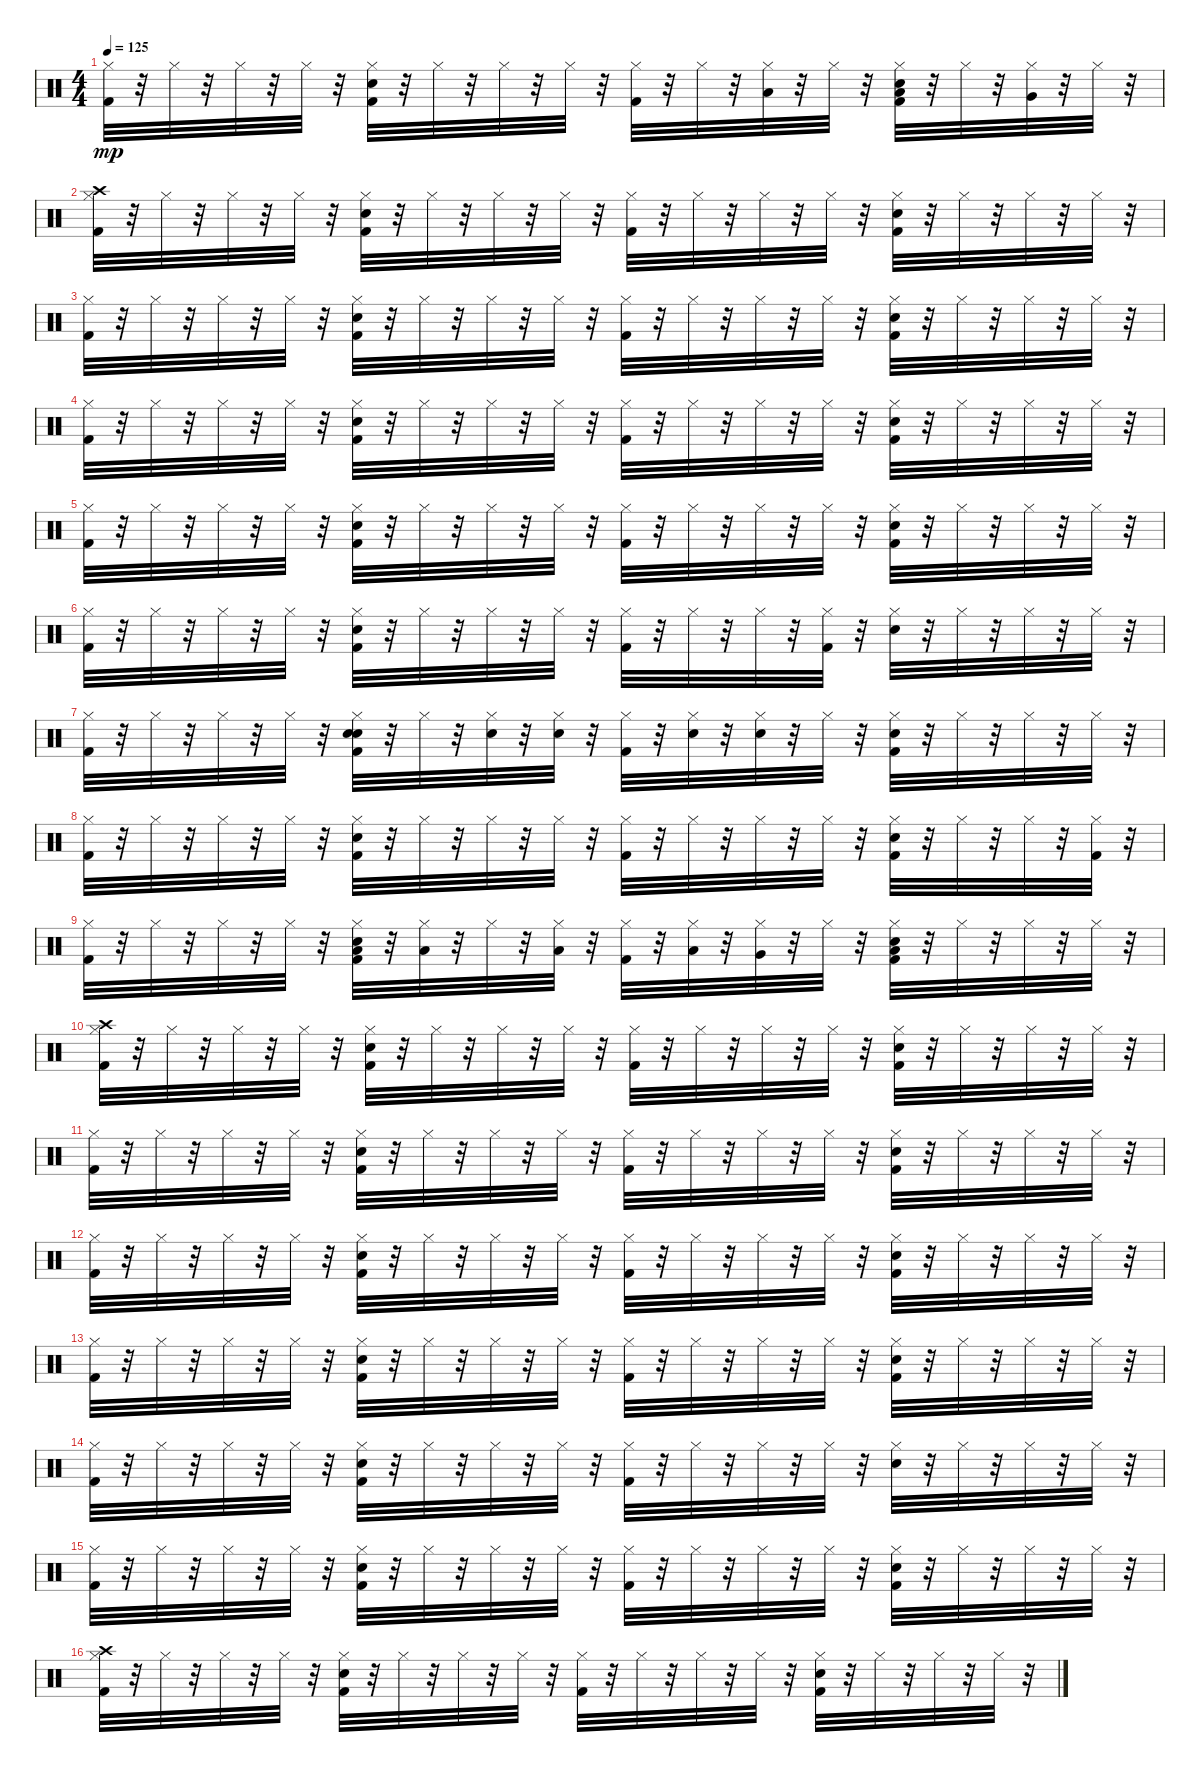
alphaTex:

\track "" {instrument percussion}
\staff {score}
\articulation defaults
\ts (4 4)
\tempo 125
\clef neutral
\ks c
("Kick (hit) 2" "Hi-Hat (closed)").32{dy mp} r.32 "Hi-Hat (closed)".32 r.32 "Hi-Hat (closed)".32 r.32 "Hi-Hat (closed)".32 r.32 ("Kick (hit) 2" "Snare (hit) 2" "Hi-Hat (closed)").32 r.32 "Hi-Hat (closed)".32 r.32 "Hi-Hat (closed)".32 r.32 "Hi-Hat (closed)".32 r.32 ("Kick (hit) 2" "Hi-Hat (closed)").32 r.32 "Hi-Hat (closed)".32 r.32 ("Low Tom (hit)" "Hi-Hat (closed)").32 r.32 "Hi-Hat (closed)".32 r.32 ("Low Tom (hit)" "Kick (hit) 2" "Snare (hit) 2" "Hi-Hat (closed)").32 r.32 "Hi-Hat (closed)".32 r.32 ("Very Low Tom (hit)" "Hi-Hat (closed)").32 r.32 "Hi-Hat (closed)".32 r.32 |
("Hi-Hat (closed)" "Kick (hit) 2" "Crash high (hit)").32 r.32 "Hi-Hat (closed)".32 r.32 "Hi-Hat (closed)".32 r.32 "Hi-Hat (closed)".32 r.32 ("Kick (hit) 2" "Hi-Hat (closed)" "Snare (hit) 2").32 r.32 "Hi-Hat (closed)".32 r.32 "Hi-Hat (closed)".32 r.32 "Hi-Hat (closed)".32 r.32 ("Hi-Hat (closed)" "Kick (hit) 2").32 r.32 "Hi-Hat (closed)".32 r.32 "Hi-Hat (closed)".32 r.32 "Hi-Hat (closed)".32 r.32 ("Kick (hit) 2" "Hi-Hat (closed)" "Snare (hit) 2").32 r.32 "Hi-Hat (closed)".32 r.32 "Hi-Hat (closed)".32 r.32 "Hi-Hat (closed)".32 r.32 |
("Kick (hit) 2" "Hi-Hat (closed)").32 r.32 "Hi-Hat (closed)".32 r.32 "Hi-Hat (closed)".32 r.32 "Hi-Hat (closed)".32 r.32 ("Kick (hit) 2" "Snare (hit) 2" "Hi-Hat (closed)").32 r.32 "Hi-Hat (closed)".32 r.32 "Hi-Hat (closed)".32 r.32 "Hi-Hat (closed)".32 r.32 ("Kick (hit) 2" "Hi-Hat (closed)").32 r.32 "Hi-Hat (closed)".32 r.32 "Hi-Hat (closed)".32 r.32 "Hi-Hat (closed)".32 r.32 ("Kick (hit) 2" "Snare (hit) 2" "Hi-Hat (closed)").32 r.32 "Hi-Hat (closed)".32 r.32 "Hi-Hat (closed)".32 r.32 "Hi-Hat (closed)".32 r.32 |
("Kick (hit) 2" "Hi-Hat (closed)").32 r.32 "Hi-Hat (closed)".32 r.32 "Hi-Hat (closed)".32 r.32 "Hi-Hat (closed)".32 r.32 ("Kick (hit) 2" "Snare (hit) 2" "Hi-Hat (closed)").32 r.32 "Hi-Hat (closed)".32 r.32 "Hi-Hat (closed)".32 r.32 "Hi-Hat (closed)".32 r.32 ("Kick (hit) 2" "Hi-Hat (closed)").32 r.32 "Hi-Hat (closed)".32 r.32 "Hi-Hat (closed)".32 r.32 "Hi-Hat (closed)".32 r.32 ("Kick (hit) 2" "Snare (hit) 2" "Hi-Hat (closed)").32 r.32 "Hi-Hat (closed)".32 r.32 "Hi-Hat (closed)".32 r.32 "Hi-Hat (closed)".32 r.32 |
("Kick (hit) 2" "Hi-Hat (closed)").32 r.32 "Hi-Hat (closed)".32 r.32 "Hi-Hat (closed)".32 r.32 "Hi-Hat (closed)".32 r.32 ("Kick (hit) 2" "Snare (hit) 2" "Hi-Hat (closed)").32 r.32 "Hi-Hat (closed)".32 r.32 "Hi-Hat (closed)".32 r.32 "Hi-Hat (closed)".32 r.32 ("Kick (hit) 2" "Hi-Hat (closed)").32 r.32 "Hi-Hat (closed)".32 r.32 "Hi-Hat (closed)".32 r.32 "Hi-Hat (closed)".32 r.32 ("Kick (hit) 2" "Snare (hit) 2" "Hi-Hat (closed)").32 r.32 "Hi-Hat (closed)".32 r.32 "Hi-Hat (closed)".32 r.32 "Hi-Hat (closed)".32 r.32 |
("Kick (hit) 2" "Hi-Hat (closed)").32 r.32 "Hi-Hat (closed)".32 r.32 "Hi-Hat (closed)".32 r.32 "Hi-Hat (closed)".32 r.32 ("Kick (hit) 2" "Snare (hit) 2" "Hi-Hat (closed)").32 r.32 "Hi-Hat (closed)".32 r.32 "Hi-Hat (closed)".32 r.32 "Hi-Hat (closed)".32 r.32 ("Kick (hit) 2" "Hi-Hat (closed)").32 r.32 "Hi-Hat (closed)".32 r.32 "Hi-Hat (closed)".32 r.32 ("Kick (hit) 2" "Hi-Hat (closed)").32 r.32 ("Snare (hit) 2" "Hi-Hat (closed)").32 r.32 "Hi-Hat (closed)".32 r.32 "Hi-Hat (closed)".32 r.32 "Hi-Hat (closed)".32 r.32 |
("Kick (hit) 2" "Hi-Hat (closed)").32 r.32 "Hi-Hat (closed)".32 r.32 "Hi-Hat (closed)".32 r.32 "Hi-Hat (closed)".32 r.32 ("Hand Clap (hit)" "Kick (hit) 2" "Snare (hit) 2" "Hi-Hat (closed)").32 r.32 "Hi-Hat (closed)".32 r.32 ("Hand Clap (hit)" "Hi-Hat (closed)").32 r.32 ("Hand Clap (hit)" "Hi-Hat (closed)").32 r.32 ("Kick (hit) 2" "Hi-Hat (closed)").32 r.32 ("Hand Clap (hit)" "Hi-Hat (closed)").32 r.32 ("Hand Clap (hit)" "Hi-Hat (closed)").32 r.32 "Hi-Hat (closed)".32 r.32 ("Kick (hit) 2" "Snare (hit) 2" "Hi-Hat (closed)").32 r.32 "Hi-Hat (closed)".32 r.32 "Hi-Hat (closed)".32 r.32 "Hi-Hat (closed)".32 r.32 |
("Kick (hit) 2" "Hi-Hat (closed)").32 r.32 "Hi-Hat (closed)".32 r.32 "Hi-Hat (closed)".32 r.32 "Hi-Hat (closed)".32 r.32 ("Kick (hit) 2" "Snare (hit) 2" "Hi-Hat (closed)").32 r.32 "Hi-Hat (closed)".32 r.32 "Hi-Hat (closed)".32 r.32 "Hi-Hat (closed)".32 r.32 ("Kick (hit) 2" "Hi-Hat (closed)").32 r.32 "Hi-Hat (closed)".32 r.32 "Hi-Hat (closed)".32 r.32 "Hi-Hat (closed)".32 r.32 ("Kick (hit) 2" "Snare (hit) 2" "Hi-Hat (closed)").32 r.32 "Hi-Hat (closed)".32 r.32 "Hi-Hat (closed)".32 r.32 ("Kick (hit) 2" "Hi-Hat (closed)").32 r.32 |
("Kick (hit) 2" "Hi-Hat (closed)").32 r.32 "Hi-Hat (closed)".32 r.32 "Hi-Hat (closed)".32 r.32 "Hi-Hat (closed)".32 r.32 ("Kick (hit) 2" "Snare (hit) 2" "Hi-Hat (closed)" "Low Tom (hit)").32 r.32 ("Hi-Hat (closed)" "Low Tom (hit)").32 r.32 "Hi-Hat (closed)".32 r.32 ("Low Tom (hit)" "Hi-Hat (closed)").32 r.32 ("Kick (hit) 2" "Hi-Hat (closed)").32 r.32 ("Low Tom (hit)" "Hi-Hat (closed)").32 r.32 ("Very Low Tom (hit)" "Hi-Hat (closed)").32 r.32 "Hi-Hat (closed)".32 r.32 ("Kick (hit) 2" "Low Floor Tom (hit)" "Snare (hit) 2" "Hi-Hat (closed)").32 r.32 "Hi-Hat (closed)".32 r.32 "Hi-Hat (closed)".32 r.32 "Hi-Hat (closed)".32 r.32 |
("Hi-Hat (closed)" "Kick (hit) 2" "Crash high (hit)").32 r.32 "Hi-Hat (closed)".32 r.32 "Hi-Hat (closed)".32 r.32 "Hi-Hat (closed)".32 r.32 ("Kick (hit) 2" "Hi-Hat (closed)" "Snare (hit) 2").32 r.32 "Hi-Hat (closed)".32 r.32 "Hi-Hat (closed)".32 r.32 "Hi-Hat (closed)".32 r.32 ("Hi-Hat (closed)" "Kick (hit) 2").32 r.32 "Hi-Hat (closed)".32 r.32 "Hi-Hat (closed)".32 r.32 "Hi-Hat (closed)".32 r.32 ("Kick (hit) 2" "Hi-Hat (closed)" "Snare (hit) 2").32 r.32 "Hi-Hat (closed)".32 r.32 "Hi-Hat (closed)".32 r.32 "Hi-Hat (closed)".32 r.32 |
("Kick (hit) 2" "Hi-Hat (closed)").32 r.32 "Hi-Hat (closed)".32 r.32 "Hi-Hat (closed)".32 r.32 "Hi-Hat (closed)".32 r.32 ("Kick (hit) 2" "Snare (hit) 2" "Hi-Hat (closed)").32 r.32 "Hi-Hat (closed)".32 r.32 "Hi-Hat (closed)".32 r.32 "Hi-Hat (closed)".32 r.32 ("Kick (hit) 2" "Hi-Hat (closed)").32 r.32 "Hi-Hat (closed)".32 r.32 "Hi-Hat (closed)".32 r.32 "Hi-Hat (closed)".32 r.32 ("Kick (hit) 2" "Snare (hit) 2" "Hi-Hat (closed)").32 r.32 "Hi-Hat (closed)".32 r.32 "Hi-Hat (closed)".32 r.32 "Hi-Hat (closed)".32 r.32 |
("Kick (hit) 2" "Hi-Hat (closed)").32 r.32 "Hi-Hat (closed)".32 r.32 "Hi-Hat (closed)".32 r.32 "Hi-Hat (closed)".32 r.32 ("Kick (hit) 2" "Snare (hit) 2" "Hi-Hat (closed)").32 r.32 "Hi-Hat (closed)".32 r.32 "Hi-Hat (closed)".32 r.32 "Hi-Hat (closed)".32 r.32 ("Kick (hit) 2" "Hi-Hat (closed)").32 r.32 "Hi-Hat (closed)".32 r.32 "Hi-Hat (closed)".32 r.32 "Hi-Hat (closed)".32 r.32 ("Kick (hit) 2" "Snare (hit) 2" "Hi-Hat (closed)").32 r.32 "Hi-Hat (closed)".32 r.32 "Hi-Hat (closed)".32 r.32 "Hi-Hat (closed)".32 r.32 |
("Kick (hit) 2" "Hi-Hat (closed)").32 r.32 "Hi-Hat (closed)".32 r.32 "Hi-Hat (closed)".32 r.32 "Hi-Hat (closed)".32 r.32 ("Kick (hit) 2" "Snare (hit) 2" "Hi-Hat (closed)").32 r.32 "Hi-Hat (closed)".32 r.32 "Hi-Hat (closed)".32 r.32 "Hi-Hat (closed)".32 r.32 ("Kick (hit) 2" "Hi-Hat (closed)").32 r.32 "Hi-Hat (closed)".32 r.32 "Hi-Hat (closed)".32 r.32 "Hi-Hat (closed)".32 r.32 ("Kick (hit) 2" "Snare (hit) 2" "Hi-Hat (closed)").32 r.32 "Hi-Hat (closed)".32 r.32 "Hi-Hat (closed)".32 r.32 "Hi-Hat (closed)".32 r.32 |
("Kick (hit) 2" "Hi-Hat (closed)").32 r.32 "Hi-Hat (closed)".32 r.32 "Hi-Hat (closed)".32 r.32 "Hi-Hat (closed)".32 r.32 ("Kick (hit) 2" "Snare (hit) 2" "Hi-Hat (closed)").32 r.32 "Hi-Hat (closed)".32 r.32 "Hi-Hat (closed)".32 r.32 "Hi-Hat (closed)".32 r.32 ("Kick (hit) 2" "Hi-Hat (closed)").32 r.32 "Hi-Hat (closed)".32 r.32 "Hi-Hat (closed)".32 r.32 "Hi-Hat (closed)".32 r.32 ("Snare (hit) 2" "Hi-Hat (closed)").32 r.32 "Hi-Hat (closed)".32 r.32 "Hi-Hat (closed)".32 r.32 "Hi-Hat (closed)".32 r.32 |
("Kick (hit) 2" "Hi-Hat (closed)").32 r.32 "Hi-Hat (closed)".32 r.32 "Hi-Hat (closed)".32 r.32 "Hi-Hat (closed)".32 r.32 ("Kick (hit) 2" "Snare (hit) 2" "Hi-Hat (closed)").32 r.32 "Hi-Hat (closed)".32 r.32 "Hi-Hat (closed)".32 r.32 "Hi-Hat (closed)".32 r.32 ("Kick (hit) 2" "Hi-Hat (closed)").32 r.32 "Hi-Hat (closed)".32 r.32 "Hi-Hat (closed)".32 r.32 "Hi-Hat (closed)".32 r.32 ("Kick (hit) 2" "Snare (hit) 2" "Hi-Hat (closed)").32 r.32 "Hi-Hat (closed)".32 r.32 "Hi-Hat (closed)".32 r.32 "Hi-Hat (closed)".32 r.32 |
("Crash high (hit)" "Kick (hit) 2" "Hi-Hat (closed)").32 r.32 "Hi-Hat (closed)".32 r.32 "Hi-Hat (closed)".32 r.32 "Hi-Hat (closed)".32 r.32 ("Kick (hit) 2" "Snare (hit) 2" "Hi-Hat (closed)").32 r.32 "Hi-Hat (closed)".32 r.32 "Hi-Hat (closed)".32 r.32 "Hi-Hat (closed)".32 r.32 ("Kick (hit) 2" "Hi-Hat (closed)").32 r.32 "Hi-Hat (closed)".32 r.32 "Hi-Hat (closed)".32 r.32 "Hi-Hat (closed)".32 r.32 ("Kick (hit) 2" "Snare (hit) 2" "Hi-Hat (closed)").32 r.32 "Hi-Hat (closed)".32 r.32 "Hi-Hat (closed)".32 r.32 "Hi-Hat (closed)".32 r.32
